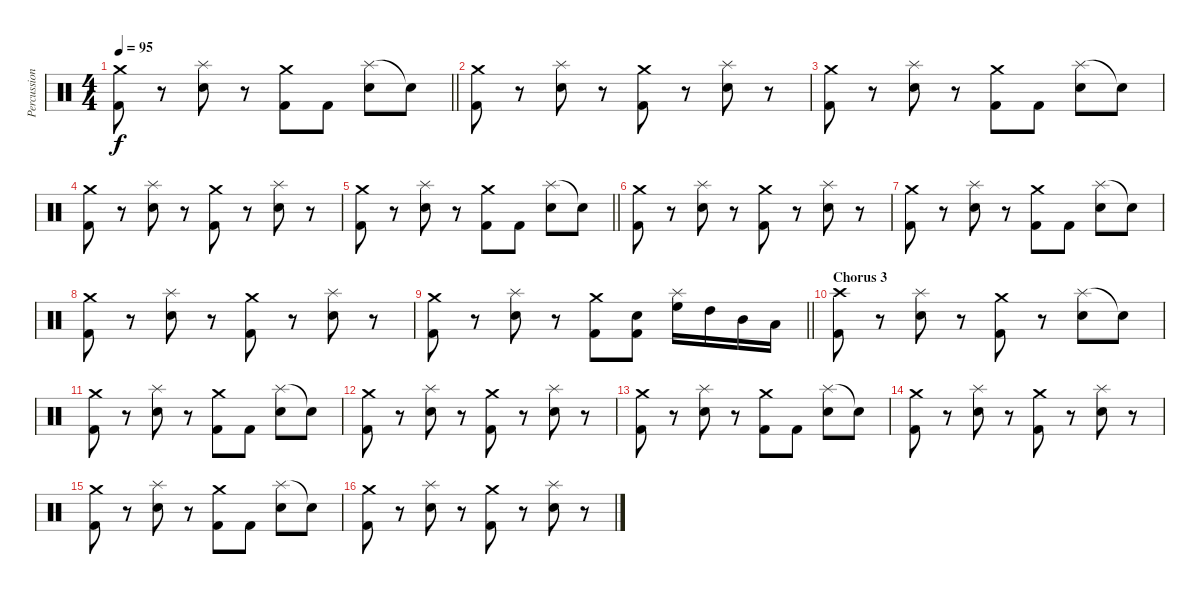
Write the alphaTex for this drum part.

\track ("Percussion" "Percussion") {instrument percussion}
\staff {score}
\articulation defaults
\ts (4 4)
\tempo 95
\clef neutral
\barLineRight lightlight
\ks c
("Crash medium (hit)" "Kick (hit) 2").8{dy f} r.8 ("Splash (hit)" "Snare (hit) 2").8 r.8 ("Crash medium (hit)" "Kick (hit) 2").8 "Kick (hit) 2".8 ("Splash (hit)" "Snare (hit) 2").8 "Snare (hit) 2"{t}.8 |
("Crash medium (hit)" "Kick (hit) 2").8 r.8 ("Splash (hit)" "Snare (hit) 2").8 r.8 ("Crash medium (hit)" "Kick (hit) 2").8 r.8 ("Splash (hit)" "Snare (hit) 2").8 r.8 |
("Crash medium (hit)" "Kick (hit) 2").8 r.8 ("Splash (hit)" "Snare (hit) 2").8 r.8 ("Crash medium (hit)" "Kick (hit) 2").8 "Kick (hit) 2".8 ("Splash (hit)" "Snare (hit) 2").8 "Snare (hit) 2"{t}.8 |
("Crash medium (hit)" "Kick (hit) 2").8 r.8 ("Splash (hit)" "Snare (hit) 2").8 r.8 ("Crash medium (hit)" "Kick (hit) 2").8 r.8 ("Splash (hit)" "Snare (hit) 2").8 r.8 |
\barLineRight lightlight
("Crash medium (hit)" "Kick (hit) 2").8 r.8 ("Splash (hit)" "Snare (hit) 2").8 r.8 ("Crash medium (hit)" "Kick (hit) 2").8 "Kick (hit) 2".8 ("Splash (hit)" "Snare (hit) 2").8 "Snare (hit) 2"{t}.8 |
("Crash medium (hit)" "Kick (hit) 2").8 r.8 ("Splash (hit)" "Snare (hit) 2").8 r.8 ("Crash medium (hit)" "Kick (hit) 2").8 r.8 ("Splash (hit)" "Snare (hit) 2").8 r.8 |
("Crash medium (hit)" "Kick (hit) 2").8 r.8 ("Splash (hit)" "Snare (hit) 2").8 r.8 ("Crash medium (hit)" "Kick (hit) 2").8 "Kick (hit) 2".8 ("Splash (hit)" "Snare (hit) 2").8 "Snare (hit) 2"{t}.8 |
("Crash medium (hit)" "Kick (hit) 2").8 r.8 ("Splash (hit)" "Snare (hit) 2").8 r.8 ("Crash medium (hit)" "Kick (hit) 2").8 r.8 ("Splash (hit)" "Snare (hit) 2").8 r.8 |
\barLineRight lightlight
("Crash medium (hit)" "Kick (hit) 2").8 r.8 ("Splash (hit)" "Snare (hit) 2").8 r.8 ("Crash medium (hit)" "Kick (hit) 2").8 ("Snare (hit) 2" "Kick (hit) 2").8 ("Splash (hit)" "High Floor Tom (hit)").16 "High Tom (hit)".16 "Mid Tom (hit)".16 "Low Tom (hit)".16 |
\section ("" "Chorus 3")
("Crash high (hit)" "Kick (hit) 2").8 r.8 ("Splash (hit)" "Snare (hit) 2").8 r.8 ("Crash medium (hit)" "Kick (hit) 2").8 r.8 ("Splash (hit)" "Snare (hit) 2").8 "Snare (hit) 2"{t}.8 |
("Crash medium (hit)" "Kick (hit) 2").8 r.8 ("Splash (hit)" "Snare (hit) 2").8 r.8 ("Crash medium (hit)" "Kick (hit) 2").8 "Kick (hit) 2".8 ("Splash (hit)" "Snare (hit) 2").8 "Snare (hit) 2"{t}.8 |
("Crash medium (hit)" "Kick (hit) 2").8 r.8 ("Splash (hit)" "Snare (hit) 2").8 r.8 ("Crash medium (hit)" "Kick (hit) 2").8 r.8 ("Splash (hit)" "Snare (hit) 2").8 r.8 |
("Crash medium (hit)" "Kick (hit) 2").8 r.8 ("Splash (hit)" "Snare (hit) 2").8 r.8 ("Crash medium (hit)" "Kick (hit) 2").8 "Kick (hit) 2".8 ("Splash (hit)" "Snare (hit) 2").8 "Snare (hit) 2"{t}.8 |
("Crash medium (hit)" "Kick (hit) 2").8 r.8 ("Splash (hit)" "Snare (hit) 2").8 r.8 ("Crash medium (hit)" "Kick (hit) 2").8 r.8 ("Splash (hit)" "Snare (hit) 2").8 r.8 |
("Crash medium (hit)" "Kick (hit) 2").8 r.8 ("Splash (hit)" "Snare (hit) 2").8 r.8 ("Crash medium (hit)" "Kick (hit) 2").8 "Kick (hit) 2".8 ("Splash (hit)" "Snare (hit) 2").8 "Snare (hit) 2"{t}.8 |
("Crash medium (hit)" "Kick (hit) 2").8 r.8 ("Splash (hit)" "Snare (hit) 2").8 r.8 ("Crash medium (hit)" "Kick (hit) 2").8 r.8 ("Splash (hit)" "Snare (hit) 2").8 r.8
